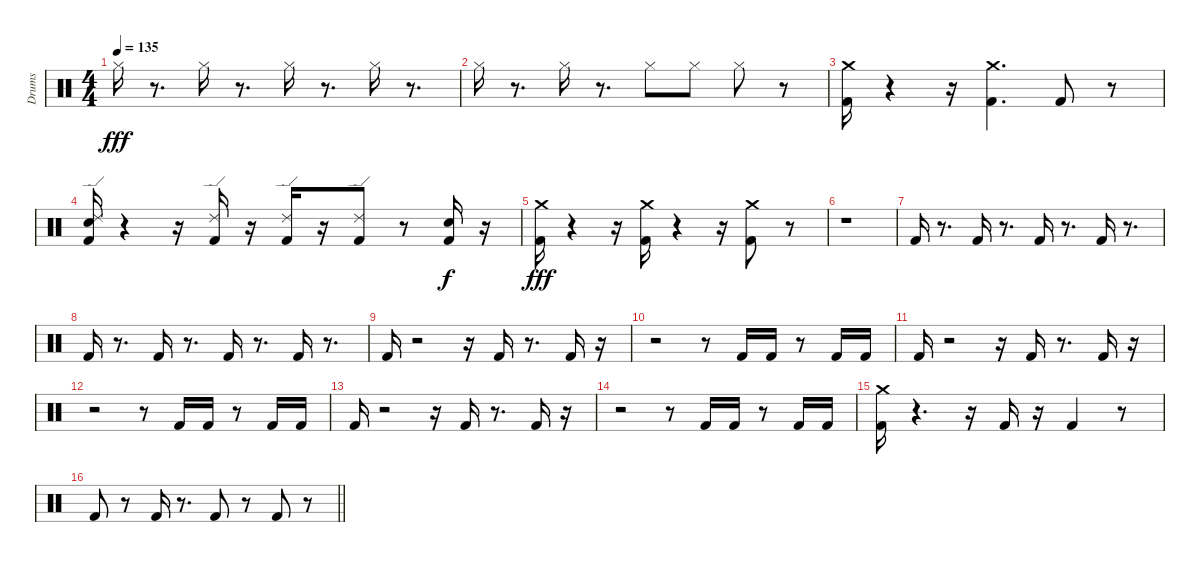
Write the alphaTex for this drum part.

\track ("Drums" "Drums") {instrument percussion}
\staff {score}
\articulation defaults
\ts (4 4)
\tempo 135
\clef neutral
\ks c "Hi-Hat (closed)".16{dy fff}
r.8{d} "Hi-Hat (closed)".16 r.8{d} "Hi-Hat (closed)".16 r.8{d} "Hi-Hat (closed)".16 r.8{d} |
"Hi-Hat (closed)".16 r.8{d} "Hi-Hat (closed)".16 r.8{d} "Hi-Hat (closed)".8 "Hi-Hat (closed)".8 "Hi-Hat (closed)".8 r.8 |
("Crash medium (hit)" "Kick (hit) 2").16 r.4 r.16 ("Crash medium (hit)" "Kick (hit) 2").4{d} "Kick (hit) 2".8 r.8 |
("Ride (edge) 2" "Snare (hit)" "Kick (hit) 2").16 r.4 r.16 ("Ride (edge) 2" "Kick (hit) 2").16 r.16 ("Ride (edge) 2" "Kick (hit) 2").16 r.16 ("Ride (edge) 2" "Kick (hit) 2").8 r.8 ("Snare (hit)" "Kick (hit) 2").16{dy f} r.16 |
("Kick (hit) 2" "Crash medium (hit)").16{dy fff} r.4 r.16 ("Kick (hit) 2" "Crash medium (hit)").16 r.4 r.16 ("Kick (hit) 2" "Crash medium (hit)").8 r.8 |
r.1 |
"Kick (hit) 2".16 r.8{d} "Kick (hit) 2".16 r.8{d} "Kick (hit) 2".16 r.8{d} "Kick (hit) 2".16 r.8{d} |
"Kick (hit) 2".16 r.8{d} "Kick (hit) 2".16 r.8{d} "Kick (hit) 2".16 r.8{d} "Kick (hit) 2".16 r.8{d} |
"Kick (hit) 2".16 r.2 r.16 "Kick (hit) 2".16 r.8{d} "Kick (hit) 2".16 r.16 |
r.2 r.8 "Kick (hit) 2".16 "Kick (hit) 2".16 r.8 "Kick (hit) 2".16 "Kick (hit) 2".16 |
"Kick (hit) 2".16 r.2 r.16 "Kick (hit) 2".16 r.8{d} "Kick (hit) 2".16 r.16 |
r.2 r.8 "Kick (hit) 2".16 "Kick (hit) 2".16 r.8 "Kick (hit) 2".16 "Kick (hit) 2".16 |
"Kick (hit) 2".16 r.2 r.16 "Kick (hit) 2".16 r.8{d} "Kick (hit) 2".16 r.16 |
r.2 r.8 "Kick (hit) 2".16 "Kick (hit) 2".16 r.8 "Kick (hit) 2".16 "Kick (hit) 2".16 |
("Kick (hit) 2" "Crash medium (hit)").16 r.4{d} r.16 "Kick (hit) 2".16 r.16 "Kick (hit) 2".4 r.8 |
\barLineRight lightlight "Kick (hit) 2".8
r.8 "Kick (hit) 2".16 r.8{d} "Kick (hit) 2".8 r.8 "Kick (hit) 2".8 r.8
